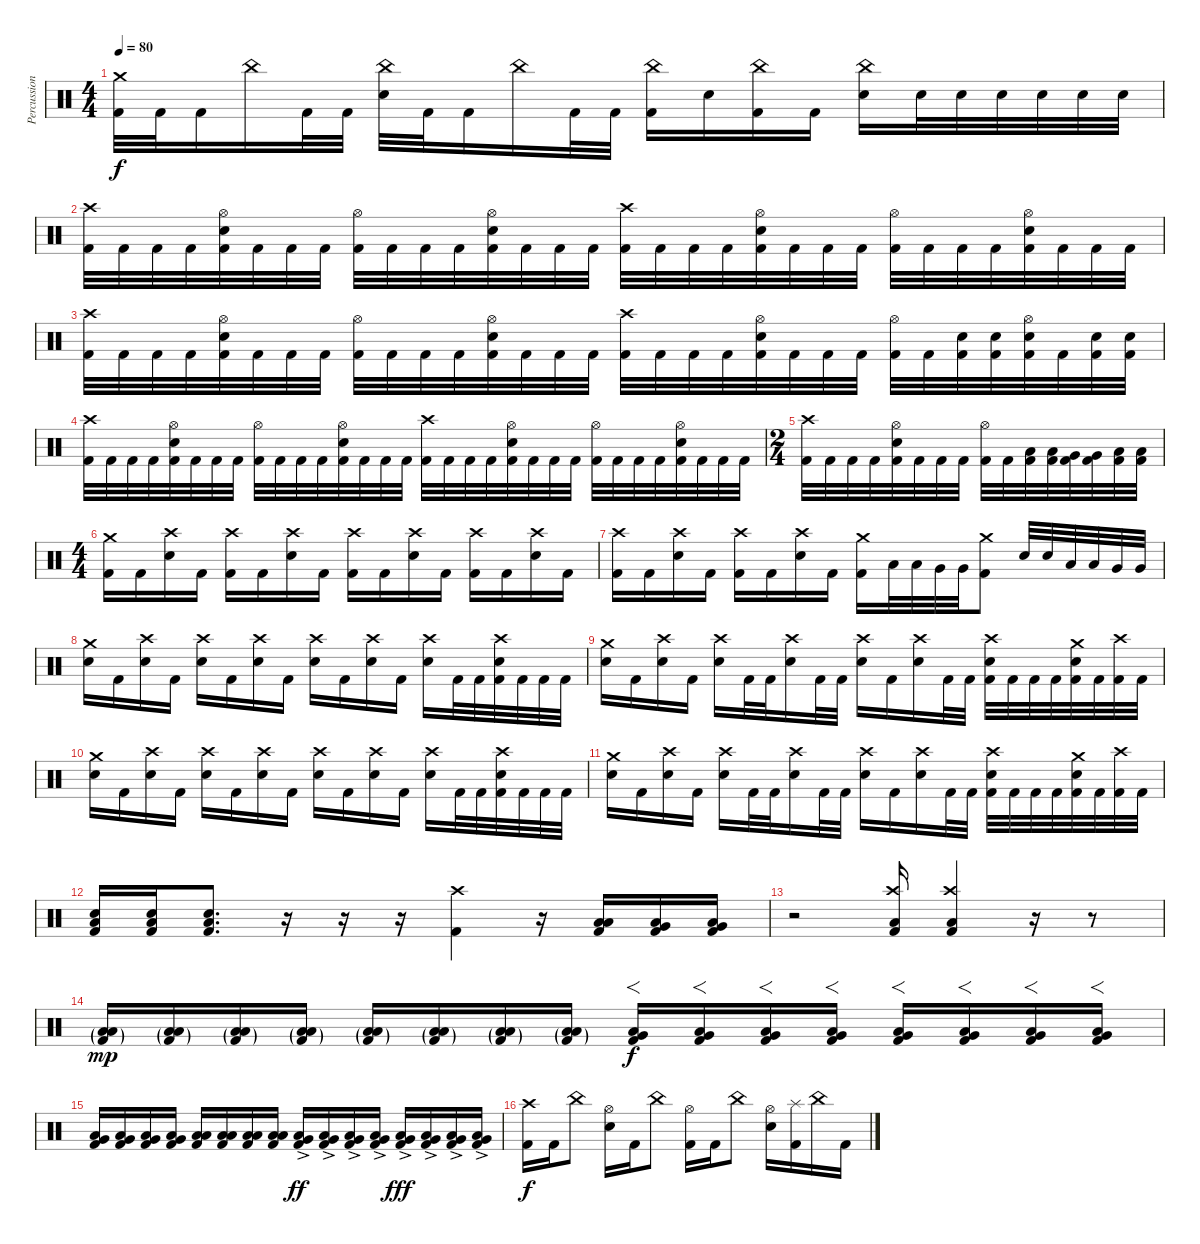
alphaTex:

\track ("Percussions" "Percussion") {instrument percussion}
\staff {score}
\articulation defaults
\ts (4 4)
\tempo 80
\clef neutral
\ks c
("Crash medium (hit)" "Kick (hit) 2").32{dy f} "Kick (hit) 2".32 "Kick (hit) 2".16 "China (hit)".16 "Kick (hit) 2".32 "Kick (hit) 2".32 ("China (hit)" "Electric Snare (hit)").32 "Kick (hit) 2".32 "Kick (hit) 2".16 "China (hit)".16 "Kick (hit) 2".32 "Kick (hit) 2".32 ("China (hit)" "Kick (hit) 2").16 "Electric Snare (hit)".16 ("China (hit)" "Kick (hit) 2").16 "Kick (hit) 2".16 ("China (hit)" "Electric Snare (hit)").16 "Electric Snare (hit)".32 "Electric Snare (hit)".32 "Electric Snare (hit)".32 "Electric Snare (hit)".32 "Electric Snare (hit)".32 "Electric Snare (hit)".32 |
("Crash high (hit)" "Kick (hit) 2").32 "Kick (hit) 2".32 "Kick (hit) 2".32 "Kick (hit) 2".32 ("Hi-Hat (open)" "Electric Snare (hit)" "Kick (hit) 2").32 "Kick (hit) 2".32 "Kick (hit) 2".32 "Kick (hit) 2".32 ("Hi-Hat (open)" "Kick (hit) 2").32 "Kick (hit) 2".32 "Kick (hit) 2".32 "Kick (hit) 2".32 ("Hi-Hat (open)" "Electric Snare (hit)" "Kick (hit) 2").32 "Kick (hit) 2".32 "Kick (hit) 2".32 "Kick (hit) 2".32 ("Crash high (hit)" "Kick (hit) 2").32 "Kick (hit) 2".32 "Kick (hit) 2".32 "Kick (hit) 2".32 ("Hi-Hat (open)" "Electric Snare (hit)" "Kick (hit) 2").32 "Kick (hit) 2".32 "Kick (hit) 2".32 "Kick (hit) 2".32 ("Hi-Hat (open)" "Kick (hit) 2").32 "Kick (hit) 2".32 "Kick (hit) 2".32 "Kick (hit) 2".32 ("Hi-Hat (open)" "Electric Snare (hit)" "Kick (hit) 2").32 "Kick (hit) 2".32 "Kick (hit) 2".32 "Kick (hit) 2".32 |
("Crash high (hit)" "Kick (hit) 2").32 "Kick (hit) 2".32 "Kick (hit) 2".32 "Kick (hit) 2".32 ("Hi-Hat (open)" "Electric Snare (hit)" "Kick (hit) 2").32 "Kick (hit) 2".32 "Kick (hit) 2".32 "Kick (hit) 2".32 ("Hi-Hat (open)" "Kick (hit) 2").32 "Kick (hit) 2".32 "Kick (hit) 2".32 "Kick (hit) 2".32 ("Hi-Hat (open)" "Electric Snare (hit)" "Kick (hit) 2").32 "Kick (hit) 2".32 "Kick (hit) 2".32 "Kick (hit) 2".32 ("Crash high (hit)" "Kick (hit) 2").32 "Kick (hit) 2".32 "Kick (hit) 2".32 "Kick (hit) 2".32 ("Hi-Hat (open)" "Electric Snare (hit)" "Kick (hit) 2").32 "Kick (hit) 2".32 "Kick (hit) 2".32 "Kick (hit) 2".32 ("Hi-Hat (open)" "Kick (hit) 2").32 "Kick (hit) 2".32 ("Electric Snare (hit)" "Kick (hit) 2").32 ("Electric Snare (hit)" "Kick (hit) 2").32 ("Hi-Hat (open)" "Electric Snare (hit)" "Kick (hit) 2").32 "Kick (hit) 2".32 ("Electric Snare (hit)" "Kick (hit) 2").32 ("Electric Snare (hit)" "Kick (hit) 2").32 |
("Crash high (hit)" "Kick (hit) 2").32 "Kick (hit) 2".32 "Kick (hit) 2".32 "Kick (hit) 2".32 ("Hi-Hat (open)" "Electric Snare (hit)" "Kick (hit) 2").32 "Kick (hit) 2".32 "Kick (hit) 2".32 "Kick (hit) 2".32 ("Hi-Hat (open)" "Kick (hit) 2").32 "Kick (hit) 2".32 "Kick (hit) 2".32 "Kick (hit) 2".32 ("Hi-Hat (open)" "Electric Snare (hit)" "Kick (hit) 2").32 "Kick (hit) 2".32 "Kick (hit) 2".32 "Kick (hit) 2".32 ("Crash high (hit)" "Kick (hit) 2").32 "Kick (hit) 2".32 "Kick (hit) 2".32 "Kick (hit) 2".32 ("Hi-Hat (open)" "Electric Snare (hit)" "Kick (hit) 2").32 "Kick (hit) 2".32 "Kick (hit) 2".32 "Kick (hit) 2".32 ("Hi-Hat (open)" "Kick (hit) 2").32 "Kick (hit) 2".32 "Kick (hit) 2".32 "Kick (hit) 2".32 ("Hi-Hat (open)" "Electric Snare (hit)" "Kick (hit) 2").32 "Kick (hit) 2".32 "Kick (hit) 2".32 "Kick (hit) 2".32 |
\ts (2 4)
("Crash high (hit)" "Kick (hit) 2").32 "Kick (hit) 2".32 "Kick (hit) 2".32 "Kick (hit) 2".32 ("Hi-Hat (open)" "Electric Snare (hit)" "Kick (hit) 2").32 "Kick (hit) 2".32 "Kick (hit) 2".32 "Kick (hit) 2".32 ("Hi-Hat (open)" "Kick (hit) 2").32 "Kick (hit) 2".32 ("Low Tom (hit)" "Kick (hit) 2").32 ("Low Tom (hit)" "Kick (hit) 2").32 ("Very Low Tom (hit)" "Kick (hit) 2").32 ("Very Low Tom (hit)" "Kick (hit) 2").32 ("Low Floor Tom (hit)" "Kick (hit) 2").32 ("Low Floor Tom (hit)" "Kick (hit) 2").32 |
\ts (4 4)
("Crash medium (hit)" "Kick (hit) 2").16 "Kick (hit) 2".16 ("Crash high (hit)" "Electric Snare (hit)").16 "Kick (hit) 2".16 ("Crash high (hit)" "Kick (hit) 2").16 "Kick (hit) 2".16 ("Crash high (hit)" "Electric Snare (hit)").16 "Kick (hit) 2".16 ("Crash high (hit)" "Kick (hit) 2").16 "Kick (hit) 2".16 ("Crash high (hit)" "Electric Snare (hit)").16 "Kick (hit) 2".16 ("Crash high (hit)" "Kick (hit) 2").16 "Kick (hit) 2".16 ("Crash high (hit)" "Electric Snare (hit)").16 "Kick (hit) 2".16 |
("Crash high (hit)" "Kick (hit) 2").16 "Kick (hit) 2".16 ("Crash high (hit)" "Electric Snare (hit)").16 "Kick (hit) 2".16 ("Crash high (hit)" "Kick (hit) 2").16 "Kick (hit) 2".16 ("Crash high (hit)" "Electric Snare (hit)").16 "Kick (hit) 2".16 ("Crash medium (hit)" "Kick (hit) 2").16 "Low Tom (hit)".32 "Low Tom (hit)".32 "Very Low Tom (hit)".32 "Very Low Tom (hit)".32 ("Crash medium (hit)" "Kick (hit) 2").8 "Electric Snare (hit)".32 "Electric Snare (hit)".32 "Low Tom (hit)".32 "Low Tom (hit)".32 "Very Low Tom (hit)".32 "Very Low Tom (hit)".32 |
("Crash medium (hit)" "Electric Snare (hit)").16 "Kick (hit) 2".16 ("Crash high (hit)" "Electric Snare (hit)").16 "Kick (hit) 2".16 ("Crash high (hit)" "Electric Snare (hit)").16 "Kick (hit) 2".16 ("Crash high (hit)" "Electric Snare (hit)").16 "Kick (hit) 2".16 ("Crash high (hit)" "Electric Snare (hit)").16 "Kick (hit) 2".16 ("Crash high (hit)" "Electric Snare (hit)").16 "Kick (hit) 2".16 ("Crash high (hit)" "Electric Snare (hit)").16 "Kick (hit) 2".32 "Kick (hit) 2".32 ("Crash high (hit)" "Electric Snare (hit)" "Kick (hit) 2").32 "Kick (hit) 2".32 "Kick (hit) 2".32 "Kick (hit) 2".32 |
("Crash medium (hit)" "Electric Snare (hit)").16 "Kick (hit) 2".16 ("Crash high (hit)" "Electric Snare (hit)").16 "Kick (hit) 2".16 ("Crash high (hit)" "Electric Snare (hit)").16 "Kick (hit) 2".32 "Kick (hit) 2".32 ("Crash high (hit)" "Electric Snare (hit)").16 "Kick (hit) 2".32 "Kick (hit) 2".32 ("Crash high (hit)" "Electric Snare (hit)").16 "Kick (hit) 2".16 ("Crash high (hit)" "Electric Snare (hit)").16 "Kick (hit) 2".32 "Kick (hit) 2".32 ("Crash high (hit)" "Electric Snare (hit)" "Kick (hit) 2").32 "Kick (hit) 2".32 "Kick (hit) 2".32 "Kick (hit) 2".32 ("Crash medium (hit)" "Electric Snare (hit)" "Kick (hit) 2").32 "Kick (hit) 2".32 ("Crash high (hit)" "Kick (hit) 2").32 "Kick (hit) 2".32 |
("Crash medium (hit)" "Electric Snare (hit)").16 "Kick (hit) 2".16 ("Crash high (hit)" "Electric Snare (hit)").16 "Kick (hit) 2".16 ("Crash high (hit)" "Electric Snare (hit)").16 "Kick (hit) 2".16 ("Crash high (hit)" "Electric Snare (hit)").16 "Kick (hit) 2".16 ("Crash high (hit)" "Electric Snare (hit)").16 "Kick (hit) 2".16 ("Crash high (hit)" "Electric Snare (hit)").16 "Kick (hit) 2".16 ("Crash high (hit)" "Electric Snare (hit)").16 "Kick (hit) 2".32 "Kick (hit) 2".32 ("Crash high (hit)" "Electric Snare (hit)" "Kick (hit) 2").32 "Kick (hit) 2".32 "Kick (hit) 2".32 "Kick (hit) 2".32 |
("Crash medium (hit)" "Electric Snare (hit)").16 "Kick (hit) 2".16 ("Crash high (hit)" "Electric Snare (hit)").16 "Kick (hit) 2".16 ("Crash high (hit)" "Electric Snare (hit)").16 "Kick (hit) 2".32 "Kick (hit) 2".32 ("Crash high (hit)" "Electric Snare (hit)").16 "Kick (hit) 2".32 "Kick (hit) 2".32 ("Crash high (hit)" "Electric Snare (hit)").16 "Kick (hit) 2".16 ("Crash high (hit)" "Electric Snare (hit)").16 "Kick (hit) 2".32 "Kick (hit) 2".32 ("Crash high (hit)" "Electric Snare (hit)" "Kick (hit) 2").32 "Kick (hit) 2".32 "Kick (hit) 2".32 "Kick (hit) 2".32 ("Crash medium (hit)" "Electric Snare (hit)" "Kick (hit) 2").32 "Kick (hit) 2".32 ("Crash high (hit)" "Kick (hit) 2").32 "Kick (hit) 2".32 |
("Electric Snare (hit)" "Low Floor Tom (hit)" "Kick (hit) 2").16 ("Electric Snare (hit)" "Low Floor Tom (hit)" "Kick (hit) 2").16 ("Electric Snare (hit)" "Low Floor Tom (hit)" "Kick (hit) 2").8{d} r.16 r.16 r.16 ("Crash high (hit)" "Kick (hit) 2").4 r.16 ("Low Tom (hit)" "Low Floor Tom (hit)" "Kick (hit) 2").16 ("Very Low Tom (hit)" "Low Floor Tom (hit)" "Kick (hit) 2").16 ("Very Low Tom (hit)" "Low Floor Tom (hit)" "Kick (hit) 2").16 |
r.2 ("Crash high (hit)" "Low Floor Tom (hit)" "Kick (hit) 2").16 ("Crash high (hit)" "Low Floor Tom (hit)" "Kick (hit) 2").4 r.16 r.8 |
("Low Tom (hit)"{g} "Low Floor Tom (hit)"{g} "Kick (hit) 2"{g}).16{dy mp} ("Low Tom (hit)"{g} "Low Floor Tom (hit)"{g} "Kick (hit) 2"{g}).16 ("Low Tom (hit)"{g} "Low Floor Tom (hit)"{g} "Kick (hit) 2"{g}).16 ("Low Tom (hit)"{g} "Low Floor Tom (hit)"{g} "Kick (hit) 2"{g}).16 ("Low Tom (hit)"{g} "Low Floor Tom (hit)"{g} "Kick (hit) 2"{g}).16 ("Low Tom (hit)"{g} "Low Floor Tom (hit)"{g} "Kick (hit) 2"{g}).16 ("Low Tom (hit)"{g} "Low Floor Tom (hit)"{g} "Kick (hit) 2"{g}).16 ("Low Tom (hit)"{g} "Low Floor Tom (hit)"{g} "Kick (hit) 2"{g}).16 ("Very Low Tom (hit)" "Low Floor Tom (hit)" "Kick (hit) 2").16{f dy f} ("Very Low Tom (hit)" "Low Floor Tom (hit)" "Kick (hit) 2").16{f} ("Very Low Tom (hit)" "Low Floor Tom (hit)" "Kick (hit) 2").16{f} ("Very Low Tom (hit)" "Low Floor Tom (hit)" "Kick (hit) 2").16{f} ("Very Low Tom (hit)" "Low Floor Tom (hit)" "Kick (hit) 2").16{f} ("Very Low Tom (hit)" "Low Floor Tom (hit)" "Kick (hit) 2").16{f} ("Very Low Tom (hit)" "Low Floor Tom (hit)" "Kick (hit) 2").16{f} ("Very Low Tom (hit)" "Low Floor Tom (hit)" "Kick (hit) 2").16{f} |
("Very Low Tom (hit)" "Low Floor Tom (hit)" "Kick (hit) 2").16 ("Very Low Tom (hit)" "Low Floor Tom (hit)" "Kick (hit) 2").16 ("Very Low Tom (hit)" "Low Floor Tom (hit)" "Kick (hit) 2").16 ("Very Low Tom (hit)" "Low Floor Tom (hit)" "Kick (hit) 2").16 ("Low Tom (hit)" "Low Floor Tom (hit)" "Kick (hit) 2").16 ("Low Tom (hit)" "Low Floor Tom (hit)" "Kick (hit) 2").16 ("Low Tom (hit)" "Low Floor Tom (hit)" "Kick (hit) 2").16 ("Low Tom (hit)" "Low Floor Tom (hit)" "Kick (hit) 2").16 ("Low Tom (hit)"{ac} "Very Low Tom (hit)" "Kick (hit) 2").16{dy ff} ("Low Tom (hit)"{ac} "Very Low Tom (hit)" "Kick (hit) 2").16 ("Low Tom (hit)"{ac} "Very Low Tom (hit)" "Kick (hit) 2").16 ("Low Tom (hit)"{ac} "Very Low Tom (hit)" "Kick (hit) 2").16 ("Low Tom (hit)"{ac} "Very Low Tom (hit)" "Kick (hit) 2").16{dy fff} ("Low Tom (hit)"{ac} "Very Low Tom (hit)" "Kick (hit) 2").16 ("Low Tom (hit)"{ac} "Very Low Tom (hit)" "Kick (hit) 2").16 ("Low Tom (hit)"{ac} "Very Low Tom (hit)" "Kick (hit) 2").16 |
("Crash high (hit)" "Kick (hit) 2").16{dy f} "Kick (hit) 2".16 "China (hit)".8 ("Hi-Hat (open)" "Electric Snare (hit)").16 "Kick (hit) 2".16 "China (hit)".8 ("Hi-Hat (open)" "Kick (hit) 2").16 "Kick (hit) 2".16 "China (hit)".8 ("Hi-Hat (open)" "Electric Snare (hit)").16 ("Splash (hit)" "Kick (hit) 2").16 "China (hit)".16 "Kick (hit) 2".16
